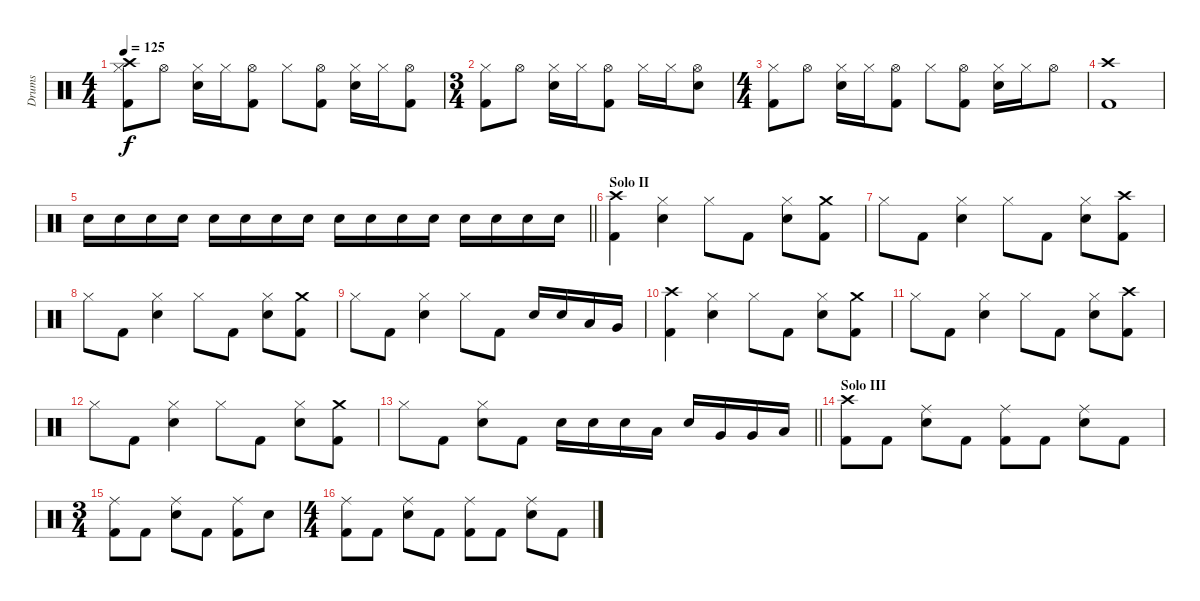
\track ("Drums" "Drums") {instrument percussion}
\staff {score}
\articulation defaults
\ts (4 4)
\tempo 125
\clef neutral
\ks c
("Kick (hit) 2" "Crash high (hit)" "Hi-Hat (closed)").8{dy f} "Hi-Hat (open)".8 ("Hi-Hat (closed)" "Electric Snare (hit)").16 "Hi-Hat (closed)".16 ("Kick (hit) 2" "Hi-Hat (open)").8 "Hi-Hat (closed)".8 ("Kick (hit) 2" "Hi-Hat (open)").8 ("Hi-Hat (closed)" "Electric Snare (hit)").16 "Hi-Hat (closed)".16 ("Kick (hit) 2" "Hi-Hat (open)").8 |
\ts (3 4)
("Kick (hit) 2" "Hi-Hat (closed)").8 "Hi-Hat (open)".8 ("Hi-Hat (closed)" "Electric Snare (hit)").16 "Hi-Hat (closed)".16 ("Kick (hit) 2" "Hi-Hat (open)").8 "Hi-Hat (closed)".16 "Hi-Hat (closed)".16 ("Hi-Hat (open)" "Electric Snare (hit)").8 |
\ts (4 4)
("Kick (hit) 2" "Hi-Hat (closed)").8 "Hi-Hat (open)".8 ("Hi-Hat (closed)" "Electric Snare (hit)").16 "Hi-Hat (closed)".16 ("Kick (hit) 2" "Hi-Hat (open)").8 "Hi-Hat (closed)".8 ("Kick (hit) 2" "Hi-Hat (open)").8 ("Hi-Hat (closed)" "Electric Snare (hit)").16 "Hi-Hat (closed)".16 "Hi-Hat (open)".8 |
("Kick (hit) 2" "Crash high (hit)").1 |
\barLineRight lightlight "Electric Snare (hit)".16 "Electric Snare (hit)".16 "Electric Snare (hit)".16 "Electric Snare (hit)".16 "Electric Snare (hit)".16 "Electric Snare (hit)".16 "Electric Snare (hit)".16 "Electric Snare (hit)".16 "Electric Snare (hit)".16 "Electric Snare (hit)".16 "Electric Snare (hit)".16 "Electric Snare (hit)".16 "Electric Snare (hit)".16 "Electric Snare (hit)".16 "Electric Snare (hit)".16 "Electric Snare (hit)".16
|
\section ("" "Solo II")
("Kick (hit) 2" "Crash high (hit)").4 ("Hi-Hat (closed)" "Electric Snare (hit)").4 "Hi-Hat (closed)".8 "Kick (hit) 2".8 ("Hi-Hat (closed)" "Electric Snare (hit)").8 ("Kick (hit) 2" "Crash medium (hit)").8 |
"Hi-Hat (closed)".8 "Kick (hit) 2".8 ("Hi-Hat (closed)" "Electric Snare (hit)").4 "Hi-Hat (closed)".8 "Kick (hit) 2".8 ("Hi-Hat (closed)" "Electric Snare (hit)").8 ("Kick (hit) 2" "Crash high (hit)").8 |
"Hi-Hat (closed)".8 "Kick (hit) 2".8 ("Hi-Hat (closed)" "Electric Snare (hit)").4 "Hi-Hat (closed)".8 "Kick (hit) 2".8 ("Hi-Hat (closed)" "Electric Snare (hit)").8 ("Kick (hit) 2" "Crash medium (hit)").8 |
"Hi-Hat (closed)".8 "Kick (hit) 2".8 ("Hi-Hat (closed)" "Electric Snare (hit)").4 "Hi-Hat (closed)".8 "Kick (hit) 2".8 "Electric Snare (hit)".16 "Electric Snare (hit)".16 "Low Tom (hit)".16 "Very Low Tom (hit)".16 |
("Kick (hit) 2" "Crash high (hit)").4 ("Hi-Hat (closed)" "Electric Snare (hit)").4 "Hi-Hat (closed)".8 "Kick (hit) 2".8 ("Hi-Hat (closed)" "Electric Snare (hit)").8 ("Kick (hit) 2" "Crash medium (hit)").8 |
"Hi-Hat (closed)".8 "Kick (hit) 2".8 ("Hi-Hat (closed)" "Electric Snare (hit)").4 "Hi-Hat (closed)".8 "Kick (hit) 2".8 ("Hi-Hat (closed)" "Electric Snare (hit)").8 ("Kick (hit) 2" "Crash high (hit)").8 |
"Hi-Hat (closed)".8 "Kick (hit) 2".8 ("Hi-Hat (closed)" "Electric Snare (hit)").4 "Hi-Hat (closed)".8 "Kick (hit) 2".8 ("Hi-Hat (closed)" "Electric Snare (hit)").8 ("Kick (hit) 2" "Crash medium (hit)").8 |
\barLineRight lightlight "Hi-Hat (closed)".8 "Kick (hit) 2".8
("Hi-Hat (closed)" "Electric Snare (hit)").8 "Kick (hit) 2".8 "Electric Snare (hit)".16 "Electric Snare (hit)".16 "Electric Snare (hit)".16 "Low Tom (hit)".16 "Electric Snare (hit)".16 "Very Low Tom (hit)".16 "Very Low Tom (hit)".16 "Low Floor Tom (hit)".16 |
\section ("" "Solo III")
("Kick (hit) 2" "Crash high (hit)").8 "Kick (hit) 2".8 ("Ride (middle)" "Electric Snare (hit)").8 "Kick (hit) 2".8 ("Kick (hit) 2" "Ride (middle)").8 "Kick (hit) 2".8 ("Ride (middle)" "Electric Snare (hit)").8 "Kick (hit) 2".8 |
\ts (3 4)
("Kick (hit) 2" "Ride (middle)").8 "Kick (hit) 2".8 ("Ride (middle)" "Electric Snare (hit)").8 "Kick (hit) 2".8 ("Kick (hit) 2" "Ride (middle)").8 "Electric Snare (hit)".8 |
\ts (4 4)
("Kick (hit) 2" "Ride (middle)").8 "Kick (hit) 2".8 ("Ride (middle)" "Electric Snare (hit)").8 "Kick (hit) 2".8 ("Kick (hit) 2" "Ride (middle)").8 "Kick (hit) 2".8 ("Ride (middle)" "Electric Snare (hit)").8 "Kick (hit) 2".8
